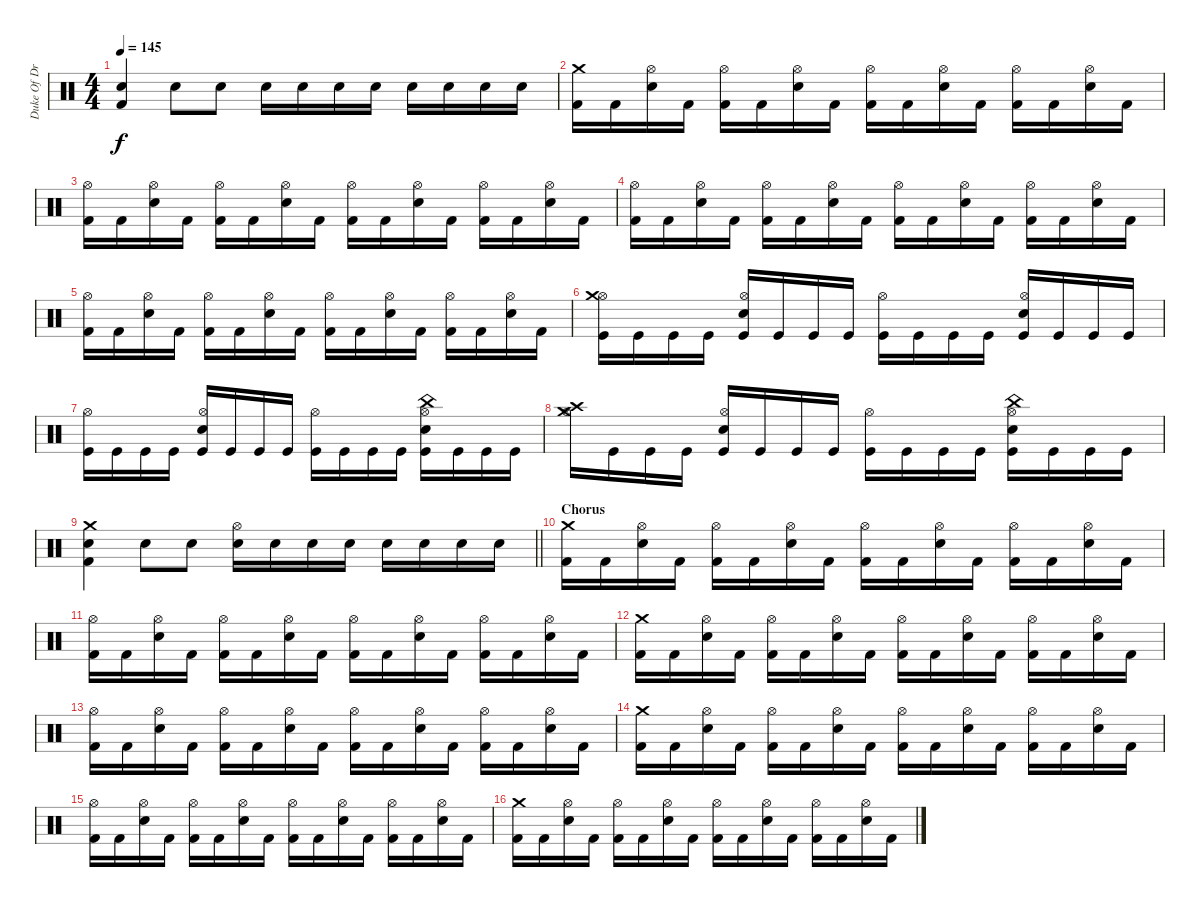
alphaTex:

\track ("Duke Of Drumington" "Duke Of Dr") {instrument percussion}
\staff {score}
\articulation defaults
\ts (4 4)
\tempo 145
\clef neutral
\ks c
("Kick (hit) 2" "Electric Snare (hit)").4{dy f} "Electric Snare (hit)".8 "Electric Snare (hit)".8 "Electric Snare (hit)".16 "Electric Snare (hit)".16 "Electric Snare (hit)".16 "Electric Snare (hit)".16 "Electric Snare (hit)".16 "Electric Snare (hit)".16 "Electric Snare (hit)".16 "Electric Snare (hit)".16 |
("Kick (hit) 2" "Crash medium (hit)").16 "Kick (hit) 2".16 ("Snare (hit) 2" "Hi-Hat (open)").16 "Kick (hit) 2".16 ("Kick (hit) 2" "Hi-Hat (open)").16 "Kick (hit) 2".16 ("Snare (hit) 2" "Hi-Hat (open)").16 "Kick (hit) 2".16 ("Kick (hit) 2" "Hi-Hat (open)").16 "Kick (hit) 2".16 ("Snare (hit) 2" "Hi-Hat (open)").16 "Kick (hit) 2".16 ("Kick (hit) 2" "Hi-Hat (open)").16 "Kick (hit) 2".16 ("Snare (hit) 2" "Hi-Hat (open)").16 "Kick (hit) 2".16 |
("Kick (hit) 2" "Hi-Hat (open)").16 "Kick (hit) 2".16 ("Snare (hit) 2" "Hi-Hat (open)").16 "Kick (hit) 2".16 ("Kick (hit) 2" "Hi-Hat (open)").16 "Kick (hit) 2".16 ("Snare (hit) 2" "Hi-Hat (open)").16 "Kick (hit) 2".16 ("Kick (hit) 2" "Hi-Hat (open)").16 "Kick (hit) 2".16 ("Snare (hit) 2" "Hi-Hat (open)").16 "Kick (hit) 2".16 ("Kick (hit) 2" "Hi-Hat (open)").16 "Kick (hit) 2".16 ("Snare (hit) 2" "Hi-Hat (open)").16 "Kick (hit) 2".16 |
("Kick (hit) 2" "Hi-Hat (open)").16 "Kick (hit) 2".16 ("Snare (hit) 2" "Hi-Hat (open)").16 "Kick (hit) 2".16 ("Kick (hit) 2" "Hi-Hat (open)").16 "Kick (hit) 2".16 ("Snare (hit) 2" "Hi-Hat (open)").16 "Kick (hit) 2".16 ("Kick (hit) 2" "Hi-Hat (open)").16 "Kick (hit) 2".16 ("Snare (hit) 2" "Hi-Hat (open)").16 "Kick (hit) 2".16 ("Kick (hit) 2" "Hi-Hat (open)").16 "Kick (hit) 2".16 ("Snare (hit) 2" "Hi-Hat (open)").16 "Kick (hit) 2".16 |
("Kick (hit) 2" "Hi-Hat (open)").16 "Kick (hit) 2".16 ("Snare (hit) 2" "Hi-Hat (open)").16 "Kick (hit) 2".16 ("Kick (hit) 2" "Hi-Hat (open)").16 "Kick (hit) 2".16 ("Snare (hit) 2" "Hi-Hat (open)").16 "Kick (hit) 2".16 ("Kick (hit) 2" "Hi-Hat (open)").16 "Kick (hit) 2".16 ("Snare (hit) 2" "Hi-Hat (open)").16 "Kick (hit) 2".16 ("Kick (hit) 2" "Hi-Hat (open)").16 "Kick (hit) 2".16 ("Snare (hit) 2" "Hi-Hat (open)").16 "Kick (hit) 2".16 |
("Kick (hit)" "Hi-Hat (open)" "Crash medium (hit)").16 "Kick (hit)".16 "Kick (hit)".16 "Kick (hit)".16 ("Kick (hit)" "Hi-Hat (open)" "Electric Snare (hit)").16 "Kick (hit)".16 "Kick (hit)".16 "Kick (hit)".16 ("Kick (hit)" "Hi-Hat (open)").16 "Kick (hit)".16 "Kick (hit)".16 "Kick (hit)".16 ("Kick (hit)" "Hi-Hat (open)" "Electric Snare (hit)").16 "Kick (hit)".16 "Kick (hit)".16 "Kick (hit)".16 |
("Kick (hit)" "Hi-Hat (open)").16 "Kick (hit)".16 "Kick (hit)".16 "Kick (hit)".16 ("Kick (hit)" "Hi-Hat (open)" "Electric Snare (hit)").16 "Kick (hit)".16 "Kick (hit)".16 "Kick (hit)".16 ("Kick (hit)" "Hi-Hat (open)").16 "Kick (hit)".16 "Kick (hit)".16 "Kick (hit)".16 ("Kick (hit)" "Hi-Hat (open)" "Electric Snare (hit)" "China (hit)").16 "Kick (hit)".16 "Kick (hit)".16 "Kick (hit)".16 |
("Crash high (hit)" "Hi-Hat (open)" "Crash medium (hit)").16 "Kick (hit)".16 "Kick (hit)".16 "Kick (hit)".16 ("Kick (hit)" "Hi-Hat (open)" "Electric Snare (hit)").16 "Kick (hit)".16 "Kick (hit)".16 "Kick (hit)".16 ("Kick (hit)" "Hi-Hat (open)").16 "Kick (hit)".16 "Kick (hit)".16 "Kick (hit)".16 ("Kick (hit)" "Hi-Hat (open)" "Electric Snare (hit)" "China (hit)").16 "Kick (hit)".16 "Kick (hit)".16 "Kick (hit)".16 |
\barLineRight lightlight
("Electric Snare (hit)" "Kick (hit) 2" "Crash medium (hit)").4 "Electric Snare (hit)".8 "Electric Snare (hit)".8 ("Electric Snare (hit)" "Hi-Hat (open)").16 "Electric Snare (hit)".16 "Electric Snare (hit)".16 "Electric Snare (hit)".16 "Electric Snare (hit)".16 "Electric Snare (hit)".16 "Electric Snare (hit)".16 "Electric Snare (hit)".16 |
\section ("" "Chorus")
("Kick (hit) 2" "Crash medium (hit)").16 "Kick (hit) 2".16 ("Snare (hit) 2" "Hi-Hat (open)").16 "Kick (hit) 2".16 ("Kick (hit) 2" "Hi-Hat (open)").16 "Kick (hit) 2".16 ("Snare (hit) 2" "Hi-Hat (open)").16 "Kick (hit) 2".16 ("Kick (hit) 2" "Hi-Hat (open)").16 "Kick (hit) 2".16 ("Snare (hit) 2" "Hi-Hat (open)").16 "Kick (hit) 2".16 ("Kick (hit) 2" "Hi-Hat (open)").16 "Kick (hit) 2".16 ("Snare (hit) 2" "Hi-Hat (open)").16 "Kick (hit) 2".16 |
("Kick (hit) 2" "Hi-Hat (open)").16 "Kick (hit) 2".16 ("Snare (hit) 2" "Hi-Hat (open)").16 "Kick (hit) 2".16 ("Kick (hit) 2" "Hi-Hat (open)").16 "Kick (hit) 2".16 ("Snare (hit) 2" "Hi-Hat (open)").16 "Kick (hit) 2".16 ("Kick (hit) 2" "Hi-Hat (open)").16 "Kick (hit) 2".16 ("Snare (hit) 2" "Hi-Hat (open)").16 "Kick (hit) 2".16 ("Kick (hit) 2" "Hi-Hat (open)").16 "Kick (hit) 2".16 ("Snare (hit) 2" "Hi-Hat (open)").16 "Kick (hit) 2".16 |
("Kick (hit) 2" "Crash medium (hit)").16 "Kick (hit) 2".16 ("Snare (hit) 2" "Hi-Hat (open)").16 "Kick (hit) 2".16 ("Kick (hit) 2" "Hi-Hat (open)").16 "Kick (hit) 2".16 ("Snare (hit) 2" "Hi-Hat (open)").16 "Kick (hit) 2".16 ("Kick (hit) 2" "Hi-Hat (open)").16 "Kick (hit) 2".16 ("Snare (hit) 2" "Hi-Hat (open)").16 "Kick (hit) 2".16 ("Kick (hit) 2" "Hi-Hat (open)").16 "Kick (hit) 2".16 ("Snare (hit) 2" "Hi-Hat (open)").16 "Kick (hit) 2".16 |
("Kick (hit) 2" "Hi-Hat (open)").16 "Kick (hit) 2".16 ("Snare (hit) 2" "Hi-Hat (open)").16 "Kick (hit) 2".16 ("Kick (hit) 2" "Hi-Hat (open)").16 "Kick (hit) 2".16 ("Snare (hit) 2" "Hi-Hat (open)").16 "Kick (hit) 2".16 ("Kick (hit) 2" "Hi-Hat (open)").16 "Kick (hit) 2".16 ("Snare (hit) 2" "Hi-Hat (open)").16 "Kick (hit) 2".16 ("Kick (hit) 2" "Hi-Hat (open)").16 "Kick (hit) 2".16 ("Snare (hit) 2" "Hi-Hat (open)").16 "Kick (hit) 2".16 |
("Kick (hit) 2" "Crash medium (hit)").16 "Kick (hit) 2".16 ("Snare (hit) 2" "Hi-Hat (open)").16 "Kick (hit) 2".16 ("Kick (hit) 2" "Hi-Hat (open)").16 "Kick (hit) 2".16 ("Snare (hit) 2" "Hi-Hat (open)").16 "Kick (hit) 2".16 ("Kick (hit) 2" "Hi-Hat (open)").16 "Kick (hit) 2".16 ("Snare (hit) 2" "Hi-Hat (open)").16 "Kick (hit) 2".16 ("Kick (hit) 2" "Hi-Hat (open)").16 "Kick (hit) 2".16 ("Snare (hit) 2" "Hi-Hat (open)").16 "Kick (hit) 2".16 |
("Kick (hit) 2" "Hi-Hat (open)").16 "Kick (hit) 2".16 ("Snare (hit) 2" "Hi-Hat (open)").16 "Kick (hit) 2".16 ("Kick (hit) 2" "Hi-Hat (open)").16 "Kick (hit) 2".16 ("Snare (hit) 2" "Hi-Hat (open)").16 "Kick (hit) 2".16 ("Kick (hit) 2" "Hi-Hat (open)").16 "Kick (hit) 2".16 ("Snare (hit) 2" "Hi-Hat (open)").16 "Kick (hit) 2".16 ("Kick (hit) 2" "Hi-Hat (open)").16 "Kick (hit) 2".16 ("Snare (hit) 2" "Hi-Hat (open)").16 "Kick (hit) 2".16 |
("Kick (hit) 2" "Crash medium (hit)").16 "Kick (hit) 2".16 ("Snare (hit) 2" "Hi-Hat (open)").16 "Kick (hit) 2".16 ("Kick (hit) 2" "Hi-Hat (open)").16 "Kick (hit) 2".16 ("Snare (hit) 2" "Hi-Hat (open)").16 "Kick (hit) 2".16 ("Kick (hit) 2" "Hi-Hat (open)").16 "Kick (hit) 2".16 ("Snare (hit) 2" "Hi-Hat (open)").16 "Kick (hit) 2".16 ("Kick (hit) 2" "Hi-Hat (open)").16 "Kick (hit) 2".16 ("Snare (hit) 2" "Hi-Hat (open)").16 "Kick (hit) 2".16
